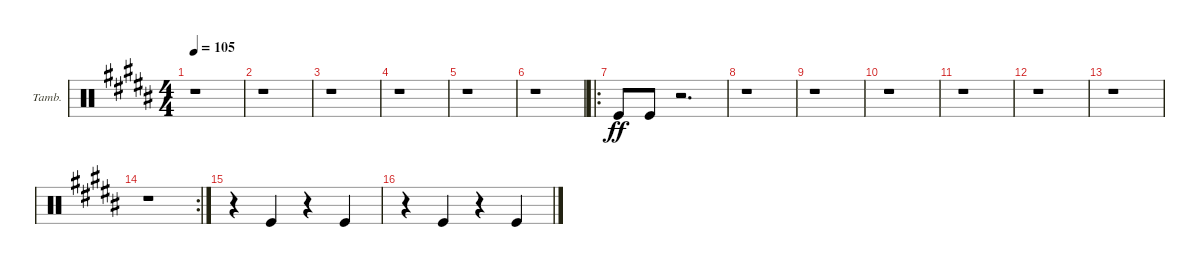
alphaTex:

\defaultSystemsLayout 4
\bracketExtendMode groupsimilarinstruments
\firstSystemTrackNameOrientation horizontal
\otherSystemsTrackNameOrientation horizontal
\track ("Tambourine" "Tamb.") {instrument percussion}
\staff {score}
\articulation defaults
\ts (4 4)
\tempo 105
\clef neutral
\scale
0.552
\ks b
r.1{dy ff} |
\scale
0.224 r.1 |
\scale
0.224 r.1 |
\scale
0.333333 r.1 |
\scale
0.333333 r.1 |
\scale
0.333333 r.1 |
\ro
\scale
0.377778 "Kick (hit)".8 "Kick (hit)".8 r.2{d} |
\scale
0.311111 r.1 |
\scale
0.311111 r.1 |
\scale
0.333333 r.1 |
\scale
0.333333 r.1 |
\scale
0.333333 r.1 |
\scale
0.321839 r.1 |
\rc 2
\scale
0.356322 r.1 |
\scale
0.321839 r.4 "Kick (hit)".4 r.4 "Kick (hit)".4 |
\scale
0.333333 r.4 "Kick (hit)".4 r.4 "Kick (hit)".4
